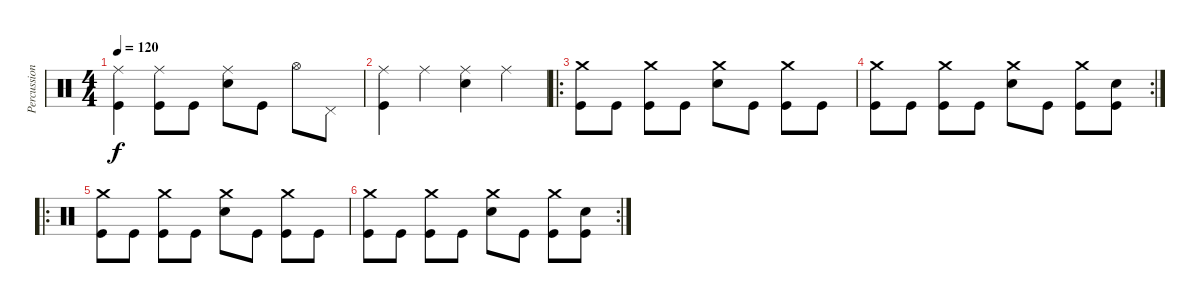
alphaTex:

\track ("Percussion" "Percussion") {instrument percussion}
\staff {score}
\articulation defaults
\ts (4 4)
\tempo 120
\clef neutral
\ks c
("Ride (middle)" "Kick (hit)").4{dy f} ("Ride (middle)" "Kick (hit)").8 "Kick (hit)".8 ("Ride (middle)" "Snare (hit) 2").8 "Kick (hit)".8 "Hi-Hat (open)".8 "Pedal Hi-Hat (hit)".8 |
("Ride (middle)" "Kick (hit)").4 "Ride (middle)".4 ("Ride (middle)" "Snare (hit) 2").4 "Ride (middle)".4 |
\ro
("Crash medium (hit)" "Kick (hit)").8 "Kick (hit)".8 ("Crash medium (hit)" "Kick (hit)").8 "Kick (hit)".8 ("Crash medium (hit)" "Snare (hit) 2").8 "Kick (hit)".8 ("Crash medium (hit)" "Kick (hit)").8 "Kick (hit)".8 |
\rc 2
("Crash medium (hit)" "Kick (hit)").8 "Kick (hit)".8 ("Crash medium (hit)" "Kick (hit)").8 "Kick (hit)".8 ("Crash medium (hit)" "Snare (hit) 2").8 "Kick (hit)".8 ("Crash medium (hit)" "Kick (hit)").8 ("Snare (hit) 2" "Kick (hit)").8 |
\ro
("Crash medium (hit)" "Kick (hit)").8 "Kick (hit)".8 ("Crash medium (hit)" "Kick (hit)").8 "Kick (hit)".8 ("Crash medium (hit)" "Snare (hit) 2").8 "Kick (hit)".8 ("Crash medium (hit)" "Kick (hit)").8 "Kick (hit)".8 |
\rc 2
("Crash medium (hit)" "Kick (hit)").8 "Kick (hit)".8 ("Crash medium (hit)" "Kick (hit)").8 "Kick (hit)".8 ("Crash medium (hit)" "Snare (hit) 2").8 "Kick (hit)".8 ("Crash medium (hit)" "Kick (hit)").8 ("Snare (hit) 2" "Kick (hit)").8
